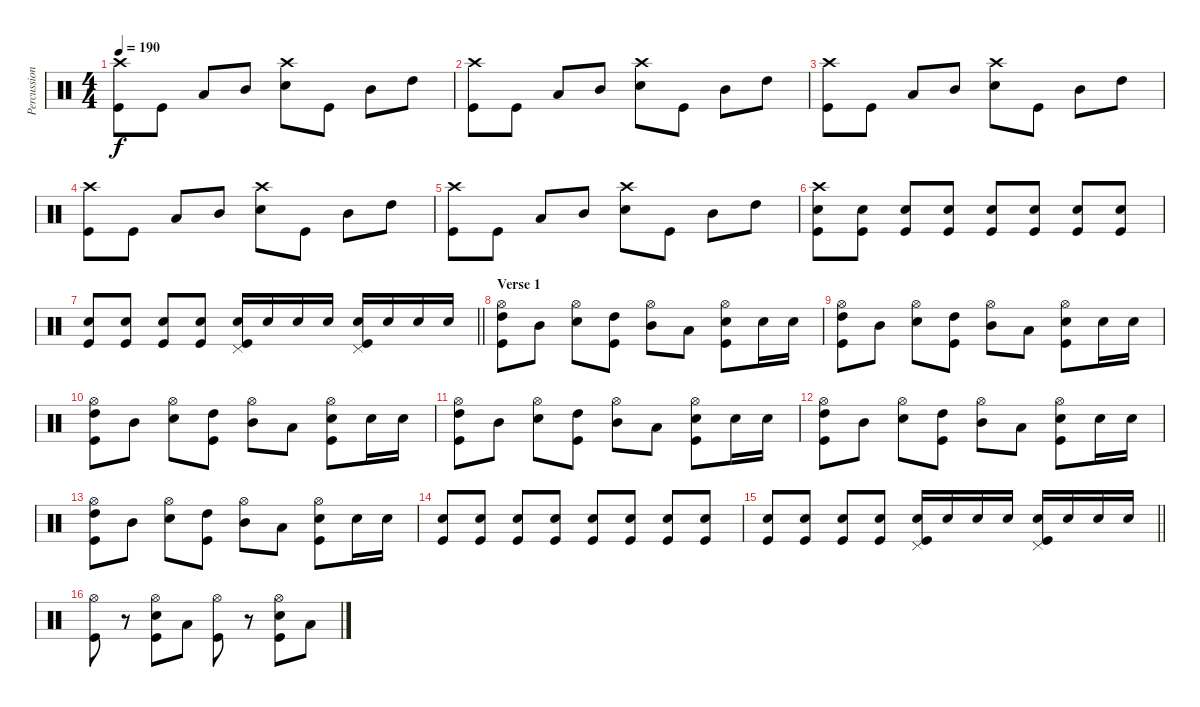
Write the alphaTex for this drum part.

\track ("Percussion" "Percussion") {instrument percussion}
\staff {score}
\articulation defaults
\ts (4 4)
\tempo 190
\clef neutral
\ks c
("Crash high (hit)" "Kick (hit)").8{dy f} "Kick (hit)".8 "Low Tom (hit)".8 "Mid Tom (hit)".8 ("Crash high (hit)" "Snare (hit) 2").8 "Kick (hit)".8 "Mid Tom (hit)".8 "High Tom (hit)".8 |
("Crash high (hit)" "Kick (hit)").8 "Kick (hit)".8 "Low Tom (hit)".8 "Mid Tom (hit)".8 ("Crash high (hit)" "Snare (hit) 2").8 "Kick (hit)".8 "Mid Tom (hit)".8 "High Tom (hit)".8 |
("Crash high (hit)" "Kick (hit)").8 "Kick (hit)".8 "Low Tom (hit)".8 "Mid Tom (hit)".8 ("Crash high (hit)" "Snare (hit) 2").8 "Kick (hit)".8 "Mid Tom (hit)".8 "High Tom (hit)".8 |
("Crash high (hit)" "Kick (hit)").8 "Kick (hit)".8 "Low Tom (hit)".8 "Mid Tom (hit)".8 ("Crash high (hit)" "Snare (hit) 2").8 "Kick (hit)".8 "Mid Tom (hit)".8 "High Tom (hit)".8 |
("Crash high (hit)" "Kick (hit)").8 "Kick (hit)".8 "Low Tom (hit)".8 "Mid Tom (hit)".8 ("Crash high (hit)" "Snare (hit) 2").8 "Kick (hit)".8 "Mid Tom (hit)".8 "High Tom (hit)".8 |
("Crash high (hit)" "Snare (hit) 2" "Kick (hit)").8 ("Snare (hit) 2" "Kick (hit)").8 ("Snare (hit) 2" "Kick (hit)").8 ("Snare (hit) 2" "Kick (hit)").8 ("Snare (hit) 2" "Kick (hit)").8 ("Snare (hit) 2" "Kick (hit)").8 ("Snare (hit) 2" "Kick (hit)").8 ("Snare (hit) 2" "Kick (hit)").8 |
\barLineRight lightlight
("Snare (hit) 2" "Kick (hit)").8 ("Snare (hit) 2" "Kick (hit)").8 ("Snare (hit) 2" "Kick (hit)").8 ("Snare (hit) 2" "Kick (hit)").8 ("Pedal Hi-Hat (hit)" "Snare (hit) 2" "Kick (hit)").16 "Snare (hit) 2".16 "Snare (hit) 2".16 "Snare (hit) 2".16 ("Pedal Hi-Hat (hit)" "Snare (hit) 2" "Kick (hit)").16 "Snare (hit) 2".16 "Snare (hit) 2".16 "Snare (hit) 2".16 |
\section ("" "Verse 1")
("Hi-Hat (open)" "High Tom (hit)" "Kick (hit)").8 "Mid Tom (hit)".8 ("Hi-Hat (open)" "Snare (hit) 2").8 ("High Tom (hit)" "Kick (hit)").8 ("Hi-Hat (open)" "Mid Tom (hit)").8 "Low Tom (hit)".8 ("Hi-Hat (open)" "Snare (hit) 2" "Kick (hit)").8 "Snare (hit) 2".16 "Snare (hit) 2".16 |
("Hi-Hat (open)" "High Tom (hit)" "Kick (hit)").8 "Mid Tom (hit)".8 ("Hi-Hat (open)" "Snare (hit) 2").8 ("High Tom (hit)" "Kick (hit)").8 ("Hi-Hat (open)" "Mid Tom (hit)").8 "Low Tom (hit)".8 ("Hi-Hat (open)" "Snare (hit) 2" "Kick (hit)").8 "Snare (hit) 2".16 "Snare (hit) 2".16 |
("Hi-Hat (open)" "High Tom (hit)" "Kick (hit)").8 "Mid Tom (hit)".8 ("Hi-Hat (open)" "Snare (hit) 2").8 ("High Tom (hit)" "Kick (hit)").8 ("Hi-Hat (open)" "Mid Tom (hit)").8 "Low Tom (hit)".8 ("Hi-Hat (open)" "Snare (hit) 2" "Kick (hit)").8 "Snare (hit) 2".16 "Snare (hit) 2".16 |
("Hi-Hat (open)" "High Tom (hit)" "Kick (hit)").8 "Mid Tom (hit)".8 ("Hi-Hat (open)" "Snare (hit) 2").8 ("High Tom (hit)" "Kick (hit)").8 ("Hi-Hat (open)" "Mid Tom (hit)").8 "Low Tom (hit)".8 ("Hi-Hat (open)" "Snare (hit) 2" "Kick (hit)").8 "Snare (hit) 2".16 "Snare (hit) 2".16 |
("Hi-Hat (open)" "High Tom (hit)" "Kick (hit)").8 "Mid Tom (hit)".8 ("Hi-Hat (open)" "Snare (hit) 2").8 ("High Tom (hit)" "Kick (hit)").8 ("Hi-Hat (open)" "Mid Tom (hit)").8 "Low Tom (hit)".8 ("Hi-Hat (open)" "Snare (hit) 2" "Kick (hit)").8 "Snare (hit) 2".16 "Snare (hit) 2".16 |
("Hi-Hat (open)" "High Tom (hit)" "Kick (hit)").8 "Mid Tom (hit)".8 ("Hi-Hat (open)" "Snare (hit) 2").8 ("High Tom (hit)" "Kick (hit)").8 ("Hi-Hat (open)" "Mid Tom (hit)").8 "Low Tom (hit)".8 ("Hi-Hat (open)" "Snare (hit) 2" "Kick (hit)").8 "Snare (hit) 2".16 "Snare (hit) 2".16 |
("Snare (hit) 2" "Kick (hit)").8 ("Snare (hit) 2" "Kick (hit)").8 ("Snare (hit) 2" "Kick (hit)").8 ("Snare (hit) 2" "Kick (hit)").8 ("Snare (hit) 2" "Kick (hit)").8 ("Snare (hit) 2" "Kick (hit)").8 ("Snare (hit) 2" "Kick (hit)").8 ("Snare (hit) 2" "Kick (hit)").8 |
\barLineRight lightlight
("Snare (hit) 2" "Kick (hit)").8 ("Snare (hit) 2" "Kick (hit)").8 ("Snare (hit) 2" "Kick (hit)").8 ("Snare (hit) 2" "Kick (hit)").8 ("Pedal Hi-Hat (hit)" "Snare (hit) 2" "Kick (hit)").16 "Snare (hit) 2".16 "Snare (hit) 2".16 "Snare (hit) 2".16 ("Pedal Hi-Hat (hit)" "Snare (hit) 2" "Kick (hit)").16 "Snare (hit) 2".16 "Snare (hit) 2".16 "Snare (hit) 2".16 |
("Hi-Hat (open)" "Kick (hit)").8 r.8 ("Snare (hit) 2" "Hi-Hat (open)" "Kick (hit)").8 "Low Tom (hit)".8 ("Hi-Hat (open)" "Kick (hit)").8 r.8 ("Snare (hit) 2" "Hi-Hat (open)" "Kick (hit)").8 "Low Tom (hit)".8
